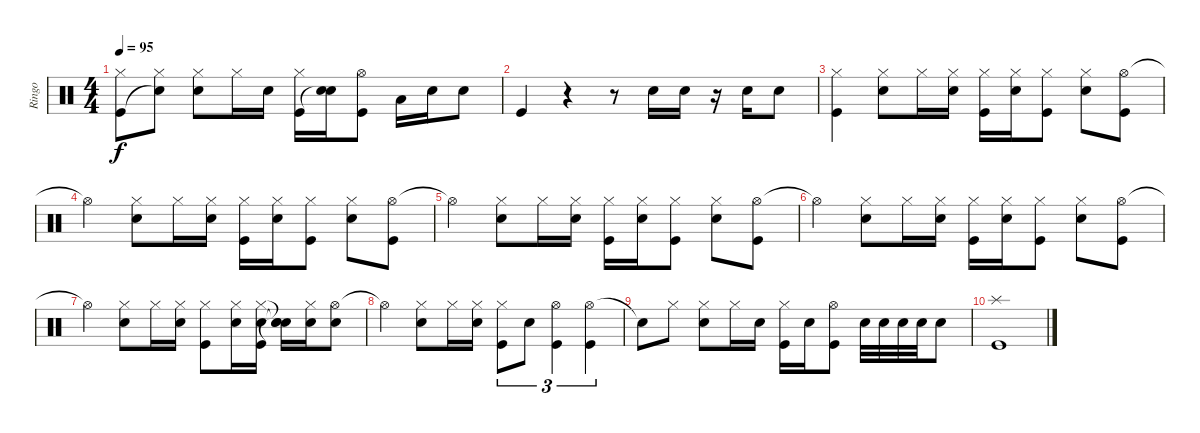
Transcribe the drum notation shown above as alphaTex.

\track ("Ringo" "Ringo") {instrument percussion}
\staff {score}
\articulation defaults
\ts (4 4)
\tempo 95
\clef neutral
\ks c
("Hi-Hat (closed)" "Kick (hit)").8{dy f} ("Hi-Hat (closed)" "Snare (hit)"{t}).8 ("Hi-Hat (closed)" "Snare (hit) 2").8 "Hi-Hat (closed)".16 "Snare (hit) 2".16 ("Hi-Hat (closed)" "Kick (hit)").16 ("Snare (hit) 2" "Snare (hit)"{t}).16 ("Hi-Hat (open)" "Kick (hit)").8 "Low Floor Tom (hit)".16 "Snare (hit) 2".16 "Snare (hit) 2".8 |
"Kick (hit)".4 r.4 r.8 "Snare (hit) 2".16 "Snare (hit) 2".16 r.16 "Snare (hit) 2".16 "Snare (hit) 2".8 |
("Hi-Hat (closed)" "Kick (hit)").4 ("Hi-Hat (closed)" "Snare (hit) 2").8 "Hi-Hat (closed)".16 ("Hi-Hat (closed)" "Snare (hit) 2").16 ("Hi-Hat (closed)" "Kick (hit)").16 ("Hi-Hat (closed)" "Snare (hit) 2").16 ("Hi-Hat (closed)" "Kick (hit)").8 ("Hi-Hat (closed)" "Snare (hit) 2").8 ("Hi-Hat (open)" "Kick (hit)").8 |
"Hi-Hat (open)"{t}.4 ("Hi-Hat (closed)" "Snare (hit) 2").8 "Hi-Hat (closed)".16 ("Hi-Hat (closed)" "Snare (hit) 2").16 ("Hi-Hat (closed)" "Kick (hit)").16 ("Hi-Hat (closed)" "Snare (hit) 2").16 ("Hi-Hat (closed)" "Kick (hit)").8 ("Hi-Hat (closed)" "Snare (hit) 2").8 ("Hi-Hat (open)" "Kick (hit)").8 |
"Hi-Hat (open)"{t}.4 ("Hi-Hat (closed)" "Snare (hit) 2").8 "Hi-Hat (closed)".16 ("Hi-Hat (closed)" "Snare (hit) 2").16 ("Hi-Hat (closed)" "Kick (hit)").16 ("Hi-Hat (closed)" "Snare (hit) 2").16 ("Hi-Hat (closed)" "Kick (hit)").8 ("Hi-Hat (closed)" "Snare (hit) 2").8 ("Hi-Hat (open)" "Kick (hit)").8 |
"Hi-Hat (open)"{t}.4 ("Hi-Hat (closed)" "Snare (hit) 2").8 "Hi-Hat (closed)".16 ("Hi-Hat (closed)" "Snare (hit) 2").16 ("Hi-Hat (closed)" "Kick (hit)").16 ("Hi-Hat (closed)" "Snare (hit) 2").16 ("Hi-Hat (closed)" "Kick (hit)").8 ("Hi-Hat (closed)" "Snare (hit) 2").8 ("Hi-Hat (open)" "Kick (hit)").8 |
"Hi-Hat (open)"{t}.4 ("Hi-Hat (closed)" "Snare (hit) 2").8 "Hi-Hat (closed)".16 ("Hi-Hat (closed)" "Snare (hit) 2").16 ("Hi-Hat (closed)" "Kick (hit)").8 ("Hi-Hat (closed)" "Snare (hit) 2").16 ("Hi-Hat (closed)" "Snare (hit) 2" "Kick (hit)").16 ("Snare (hit)"{t} "Snare (hit)"{t} "Snare (hit)"{t}).16 ("Hi-Hat (closed)" "Snare (hit) 2").16 ("Hi-Hat (open)" "Snare (hit) 2").8 |
"Hi-Hat (open)"{t}.4 ("Hi-Hat (closed)" "Snare (hit) 2").8 "Hi-Hat (closed)".16 ("Hi-Hat (closed)" "Snare (hit) 2").16 ("Hi-Hat (closed)" "Kick (hit)").8{tu (3 2)} "Snare (hit) 2".8{tu (3 2)} ("Hi-Hat (open)" "Kick (hit)").4{tu (3 2)} ("Hi-Hat (open)" "Kick (hit)").4{tu (3 2)} |
"Snare (hit)"{t}.8 "Hi-Hat (closed)".8 ("Hi-Hat (closed)" "Snare (hit) 2").8 "Hi-Hat (closed)".16 "Snare (hit) 2".16 ("Hi-Hat (closed)" "Kick (hit)").16 "Snare (hit) 2".16 ("Hi-Hat (open)" "Kick (hit)").8 "Snare (hit) 2".32 "Snare (hit) 2".32 "Snare (hit) 2".32 "Snare (hit) 2".32 "Snare (hit) 2".8 |
("Splash (hit)" "Kick (hit)").1
